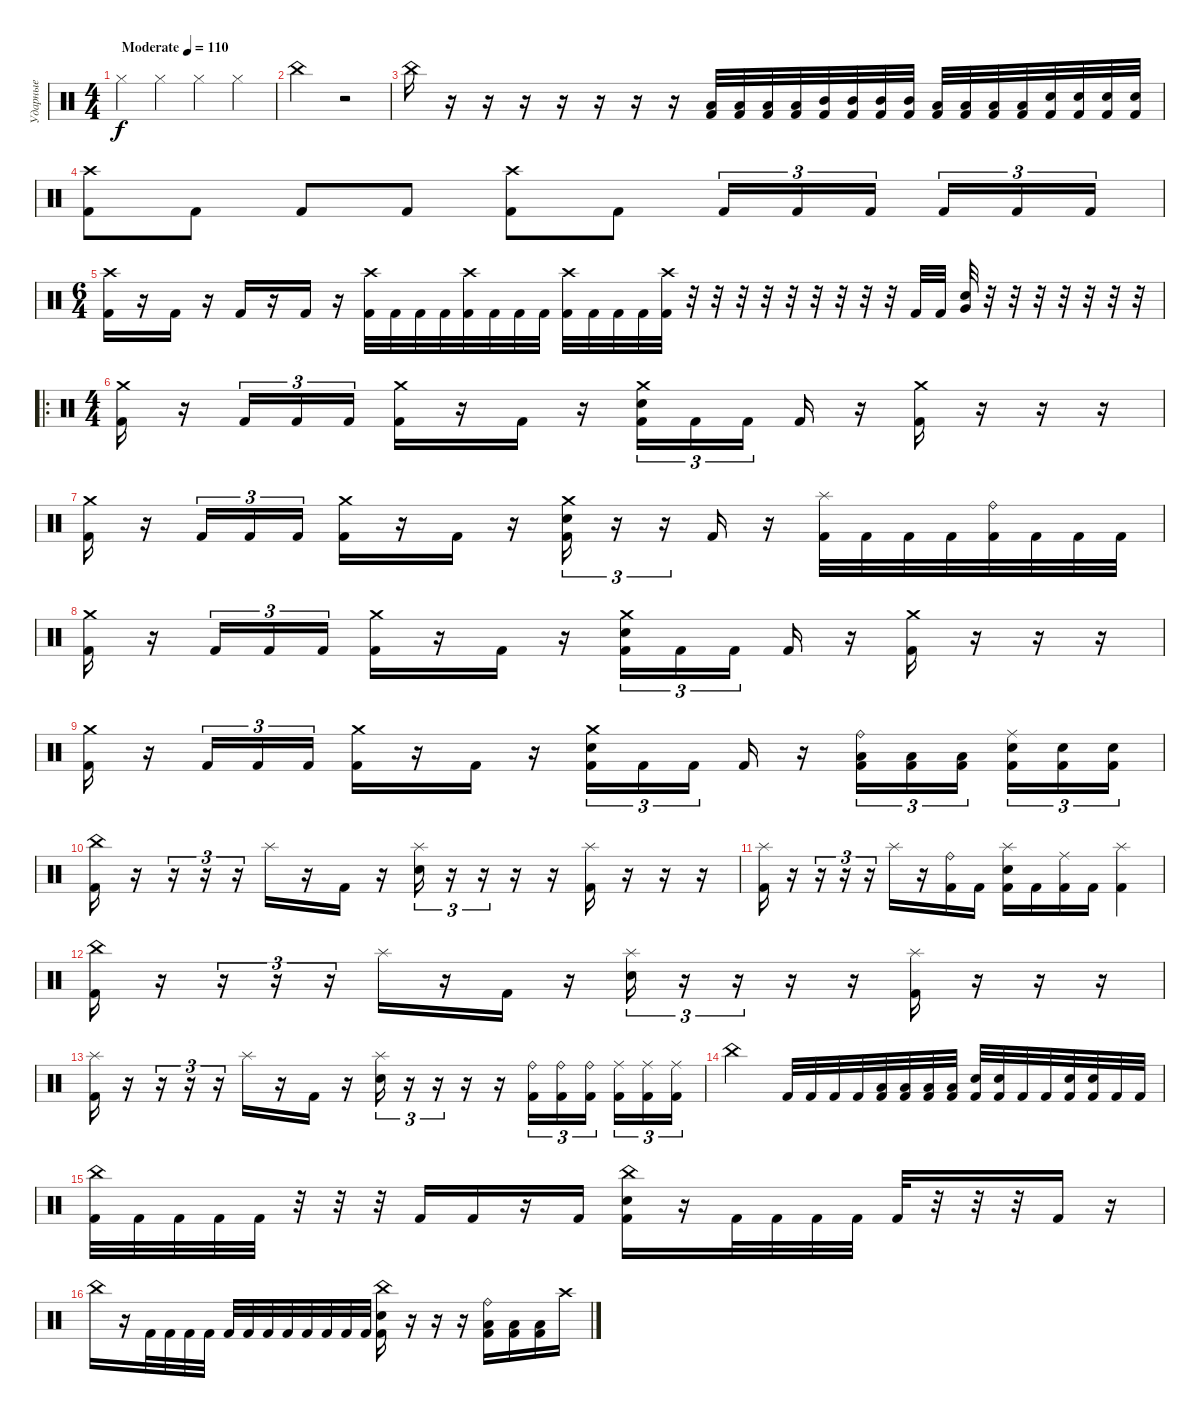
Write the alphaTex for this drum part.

\track ("Ударные" "Ударные") {instrument percussion}
\staff {score}
\articulation defaults
\ts (4 4)
\tempo (110 "Moderate")
\clef neutral
\ks c "Hi-Hat (closed)".4{dy f} "Hi-Hat (closed)".4 "Hi-Hat (closed)".4 "Hi-Hat (closed)".4
|
"China (hit)".2 r.2 |
"China (hit)".16 r.16 r.16 r.16 r.16 r.16 r.16 r.16 ("Low Tom (hit)" "Kick (hit) 2").32 ("Low Tom (hit)" "Kick (hit) 2").32 ("Low Tom (hit)" "Kick (hit) 2").32 ("Low Tom (hit)" "Kick (hit) 2").32 ("Mid Tom (hit)" "Kick (hit) 2").32 ("Mid Tom (hit)" "Kick (hit) 2").32 ("Mid Tom (hit)" "Kick (hit) 2").32 ("Mid Tom (hit)" "Kick (hit) 2").32 ("Low Floor Tom (hit)" "Kick (hit) 2").32 ("Low Floor Tom (hit)" "Kick (hit) 2").32 ("Low Floor Tom (hit)" "Kick (hit) 2").32 ("Low Floor Tom (hit)" "Kick (hit) 2").32 ("Electric Snare (hit)" "Kick (hit) 2").32 ("Electric Snare (hit)" "Kick (hit) 2").32 ("Electric Snare (hit)" "Kick (hit) 2").32 ("Electric Snare (hit)" "Kick (hit) 2").32 |
("Crash high (hit)" "Kick (hit) 2").8 "Kick (hit) 2".8 "Kick (hit) 2".8 "Kick (hit) 2".8 ("Crash high (hit)" "Kick (hit) 2").8 "Kick (hit) 2".8 "Kick (hit) 2".16{tu (3 2)} "Kick (hit) 2".16{tu (3 2)} "Kick (hit) 2".16{tu (3 2) beam splitsecondary} "Kick (hit) 2".16{tu (3 2)} "Kick (hit) 2".16{tu (3 2)} "Kick (hit) 2".16{tu (3 2)} |
\ts (6 4)
("Crash high (hit)" "Kick (hit) 2").16 r.16 "Kick (hit) 2".16 r.16 "Kick (hit) 2".16 r.16 "Kick (hit) 2".16 r.16 ("Crash high (hit)" "Kick (hit) 2").32 "Kick (hit) 2".32 "Kick (hit) 2".32 "Kick (hit) 2".32 ("Crash high (hit)" "Kick (hit) 2").32 "Kick (hit) 2".32 "Kick (hit) 2".32 "Kick (hit) 2".32 ("Crash high (hit)" "Kick (hit) 2").32 "Kick (hit) 2".32 "Kick (hit) 2".32 "Kick (hit) 2".32 ("Crash high (hit)" "Kick (hit) 2").32 r.32 r.32 r.32 r.32 r.32 r.32 r.32 r.32 r.32 "Kick (hit) 2".32 "Kick (hit) 2".32 ("Very Low Tom (hit)" "Electric Snare (hit)").32 r.32 r.32 r.32 r.32 r.32 r.32 r.32 |
\ro
\ts (4 4)
("Crash medium (hit)" "Kick (hit) 2").16 r.16 "Kick (hit) 2".16{tu (3 2)} "Kick (hit) 2".16{tu (3 2)} "Kick (hit) 2".16{tu (3 2)} ("Crash medium (hit)" "Kick (hit) 2").16 r.16 "Kick (hit) 2".16 r.16 ("Crash medium (hit)" "Electric Snare (hit)" "Kick (hit) 2").16{tu (3 2)} "Kick (hit) 2".16{tu (3 2)} "Kick (hit) 2".16{tu (3 2) beam splitsecondary} "Kick (hit) 2".16 r.16 ("Crash medium (hit)" "Kick (hit) 2").16 r.16 r.16 r.16 |
("Crash medium (hit)" "Kick (hit) 2").16 r.16 "Kick (hit) 2".16{tu (3 2)} "Kick (hit) 2".16{tu (3 2)} "Kick (hit) 2".16{tu (3 2)} ("Crash medium (hit)" "Kick (hit) 2").16 r.16 "Kick (hit) 2".16 r.16 ("Crash medium (hit)" "Electric Snare (hit)" "Kick (hit) 2").16{tu (3 2)} r.16{tu (3 2)} r.16{tu (3 2)} "Kick (hit) 2".16 r.16 ("Splash (hit)" "Kick (hit) 2").32 "Kick (hit) 2".32 "Kick (hit) 2".32 "Kick (hit) 2".32 ("Ride (bell)" "Kick (hit) 2").32 "Kick (hit) 2".32 "Kick (hit) 2".32 "Kick (hit) 2".32 |
("Crash medium (hit)" "Kick (hit) 2").16 r.16 "Kick (hit) 2".16{tu (3 2)} "Kick (hit) 2".16{tu (3 2)} "Kick (hit) 2".16{tu (3 2)} ("Crash medium (hit)" "Kick (hit) 2").16 r.16 "Kick (hit) 2".16 r.16 ("Crash medium (hit)" "Electric Snare (hit)" "Kick (hit) 2").16{tu (3 2)} "Kick (hit) 2".16{tu (3 2)} "Kick (hit) 2".16{tu (3 2) beam splitsecondary} "Kick (hit) 2".16 r.16 ("Crash medium (hit)" "Kick (hit) 2").16 r.16 r.16 r.16 |
("Crash medium (hit)" "Kick (hit) 2").16 r.16 "Kick (hit) 2".16{tu (3 2)} "Kick (hit) 2".16{tu (3 2)} "Kick (hit) 2".16{tu (3 2)} ("Crash medium (hit)" "Kick (hit) 2").16 r.16 "Kick (hit) 2".16 r.16 ("Crash medium (hit)" "Electric Snare (hit)" "Kick (hit) 2").16{tu (3 2)} "Kick (hit) 2".16{tu (3 2)} "Kick (hit) 2".16{tu (3 2) beam splitsecondary} "Kick (hit) 2".16 r.16 ("Ride (bell)" "Low Tom (hit)" "Kick (hit) 2").16{tu (3 2)} ("Low Tom (hit)" "Kick (hit) 2").16{tu (3 2)} ("Low Tom (hit)" "Kick (hit) 2").16{tu (3 2) beam splitsecondary} ("Ride (middle)" "Electric Snare (hit)" "Kick (hit) 2").16{tu (3 2)} ("Electric Snare (hit)" "Kick (hit) 2").16{tu (3 2)} ("Electric Snare (hit)" "Kick (hit) 2").16{tu (3 2)} |
("China (hit)" "Kick (hit) 2").16 r.16 r.16{tu (3 2)} r.16{tu (3 2)} r.16{tu (3 2)} "Splash (hit)".16 r.16 "Kick (hit) 2".16 r.16 ("Splash (hit)" "Electric Snare (hit)").16{tu (3 2)} r.16{tu (3 2)} r.16{tu (3 2)} r.16 r.16 ("Splash (hit)" "Kick (hit) 2").16 r.16 r.16 r.16 |
("Splash (hit)" "Kick (hit) 2").16 r.16 r.16{tu (3 2)} r.16{tu (3 2)} r.16{tu (3 2)} "Splash (hit)".16 r.16 ("Ride (bell)" "Kick (hit) 2").16 "Kick (hit) 2".16 ("Splash (hit)" "Electric Snare (hit)" "Kick (hit) 2").16 "Kick (hit) 2".16 ("Ride (middle)" "Kick (hit) 2").16 "Kick (hit) 2".16 ("Splash (hit)" "Kick (hit) 2").4 |
("China (hit)" "Kick (hit) 2").16 r.16 r.16{tu (3 2)} r.16{tu (3 2)} r.16{tu (3 2)} "Splash (hit)".16 r.16 "Kick (hit) 2".16 r.16 ("Splash (hit)" "Electric Snare (hit)").16{tu (3 2)} r.16{tu (3 2)} r.16{tu (3 2)} r.16 r.16 ("Splash (hit)" "Kick (hit) 2").16 r.16 r.16 r.16 |
("Splash (hit)" "Kick (hit) 2").16 r.16 r.16{tu (3 2)} r.16{tu (3 2)} r.16{tu (3 2)} "Splash (hit)".16 r.16 "Kick (hit) 2".16 r.16 ("Splash (hit)" "Electric Snare (hit)").16{tu (3 2)} r.16{tu (3 2)} r.16{tu (3 2)} r.16 r.16 ("Ride (bell)" "Kick (hit) 2").16{tu (3 2)} ("Ride (bell)" "Kick (hit) 2").16{tu (3 2)} ("Ride (bell)" "Kick (hit) 2").16{tu (3 2) beam splitsecondary} ("Ride (middle)" "Kick (hit) 2").16{tu (3 2)} ("Ride (middle)" "Kick (hit) 2").16{tu (3 2)} ("Ride (middle)" "Kick (hit) 2").16{tu (3 2)} |
"China (hit)".2 "Kick (hit) 2".32 "Kick (hit) 2".32 "Kick (hit) 2".32 "Kick (hit) 2".32 ("Low Tom (hit)" "Kick (hit) 2").32 ("Low Tom (hit)" "Kick (hit) 2").32 ("Low Tom (hit)" "Kick (hit) 2").32 ("Low Tom (hit)" "Kick (hit) 2").32 ("Electric Snare (hit)" "Kick (hit) 2").32 ("Electric Snare (hit)" "Kick (hit) 2").32 "Kick (hit) 2".32 "Kick (hit) 2".32 ("Electric Snare (hit)" "Kick (hit) 2").32 ("Electric Snare (hit)" "Kick (hit) 2").32 "Kick (hit) 2".32 "Kick (hit) 2".32 |
("China (hit)" "Kick (hit) 2").32 "Kick (hit) 2".32 "Kick (hit) 2".32 "Kick (hit) 2".32 "Kick (hit) 2".32 r.32 r.32 r.32 "Kick (hit) 2".16 "Kick (hit) 2".16 r.16 "Kick (hit) 2".16 ("China (hit)" "Electric Snare (hit)" "Kick (hit) 2").16 r.16 "Kick (hit) 2".32 "Kick (hit) 2".32 "Kick (hit) 2".32 "Kick (hit) 2".32 "Kick (hit) 2".32 r.32 r.32 r.32 "Kick (hit) 2".16 r.16 |
"China (hit)".16 r.16 "Kick (hit) 2".32 "Kick (hit) 2".32 "Kick (hit) 2".32 "Kick (hit) 2".32 "Kick (hit) 2".32 "Kick (hit) 2".32 "Kick (hit) 2".32 "Kick (hit) 2".32 "Kick (hit) 2".32 "Kick (hit) 2".32 "Kick (hit) 2".32 "Kick (hit) 2".32 ("China (hit)" "Electric Snare (hit)" "Kick (hit) 2").16 r.16 r.16 r.16 ("Ride (bell)" "Low Tom (hit)" "Kick (hit) 2").16 ("Low Tom (hit)" "Kick (hit) 2").16 ("Low Tom (hit)" "Kick (hit) 2").16 "Crash high (hit)".16
